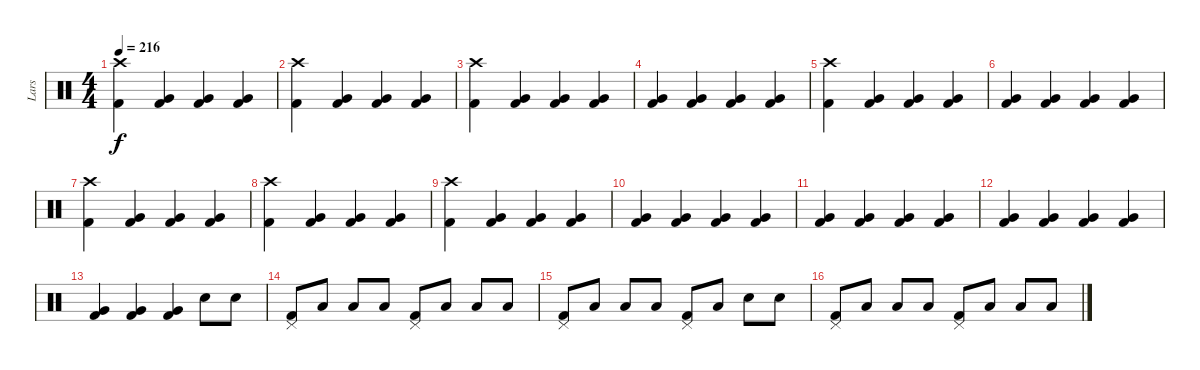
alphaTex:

\track ("Lars" "Lars") {instrument percussion}
\staff {score}
\articulation defaults
\ts (4 4)
\tempo 216
\clef neutral
\ks c
("Crash high (hit)" "Kick (hit) 2").4{dy f} ("Very Low Tom (hit)" "Kick (hit) 2").4 ("Very Low Tom (hit)" "Kick (hit) 2").4 ("Very Low Tom (hit)" "Kick (hit) 2").4 |
("Crash high (hit)" "Kick (hit) 2").4 ("Very Low Tom (hit)" "Kick (hit) 2").4 ("Very Low Tom (hit)" "Kick (hit) 2").4 ("Very Low Tom (hit)" "Kick (hit) 2").4 |
("Crash high (hit)" "Kick (hit) 2").4 ("Very Low Tom (hit)" "Kick (hit) 2").4 ("Very Low Tom (hit)" "Kick (hit) 2").4 ("Very Low Tom (hit)" "Kick (hit) 2").4 |
("Very Low Tom (hit)" "Kick (hit) 2").4 ("Very Low Tom (hit)" "Kick (hit) 2").4 ("Very Low Tom (hit)" "Kick (hit) 2").4 ("Very Low Tom (hit)" "Kick (hit) 2").4 |
("Crash high (hit)" "Kick (hit) 2").4 ("Very Low Tom (hit)" "Kick (hit) 2").4 ("Very Low Tom (hit)" "Kick (hit) 2").4 ("Very Low Tom (hit)" "Kick (hit) 2").4 |
("Very Low Tom (hit)" "Kick (hit) 2").4 ("Very Low Tom (hit)" "Kick (hit) 2").4 ("Very Low Tom (hit)" "Kick (hit) 2").4 ("Very Low Tom (hit)" "Kick (hit) 2").4 |
("Crash high (hit)" "Kick (hit) 2").4 ("Very Low Tom (hit)" "Kick (hit) 2").4 ("Very Low Tom (hit)" "Kick (hit) 2").4 ("Very Low Tom (hit)" "Kick (hit) 2").4 |
("Crash high (hit)" "Kick (hit) 2").4 ("Very Low Tom (hit)" "Kick (hit) 2").4 ("Very Low Tom (hit)" "Kick (hit) 2").4 ("Very Low Tom (hit)" "Kick (hit) 2").4 |
("Crash high (hit)" "Kick (hit) 2").4 ("Very Low Tom (hit)" "Kick (hit) 2").4 ("Very Low Tom (hit)" "Kick (hit) 2").4 ("Very Low Tom (hit)" "Kick (hit) 2").4 |
("Very Low Tom (hit)" "Kick (hit) 2").4 ("Very Low Tom (hit)" "Kick (hit) 2").4 ("Very Low Tom (hit)" "Kick (hit) 2").4 ("Very Low Tom (hit)" "Kick (hit) 2").4 |
("Very Low Tom (hit)" "Kick (hit) 2").4 ("Very Low Tom (hit)" "Kick (hit) 2").4 ("Very Low Tom (hit)" "Kick (hit) 2").4 ("Very Low Tom (hit)" "Kick (hit) 2").4 |
("Very Low Tom (hit)" "Kick (hit) 2").4 ("Very Low Tom (hit)" "Kick (hit) 2").4 ("Very Low Tom (hit)" "Kick (hit) 2").4 ("Very Low Tom (hit)" "Kick (hit) 2").4 |
("Very Low Tom (hit)" "Kick (hit) 2").4 ("Very Low Tom (hit)" "Kick (hit) 2").4 ("Very Low Tom (hit)" "Kick (hit) 2").4 "Snare (hit) 2".8 "Snare (hit) 2".8 |
("Pedal Hi-Hat (hit)" "Kick (hit) 2").8 "Low Tom (hit)".8 "Low Tom (hit)".8 "Low Tom (hit)".8 ("Pedal Hi-Hat (hit)" "Kick (hit) 2").8 "Low Tom (hit)".8 "Low Tom (hit)".8 "Low Tom (hit)".8 |
("Pedal Hi-Hat (hit)" "Kick (hit) 2").8 "Low Tom (hit)".8 "Low Tom (hit)".8 "Low Tom (hit)".8 ("Pedal Hi-Hat (hit)" "Kick (hit) 2").8 "Low Tom (hit)".8 "Snare (hit) 2".8 "Snare (hit) 2".8 |
("Pedal Hi-Hat (hit)" "Kick (hit) 2").8 "Low Tom (hit)".8 "Low Tom (hit)".8 "Low Tom (hit)".8 ("Pedal Hi-Hat (hit)" "Kick (hit) 2").8 "Low Tom (hit)".8 "Low Tom (hit)".8 "Low Tom (hit)".8
